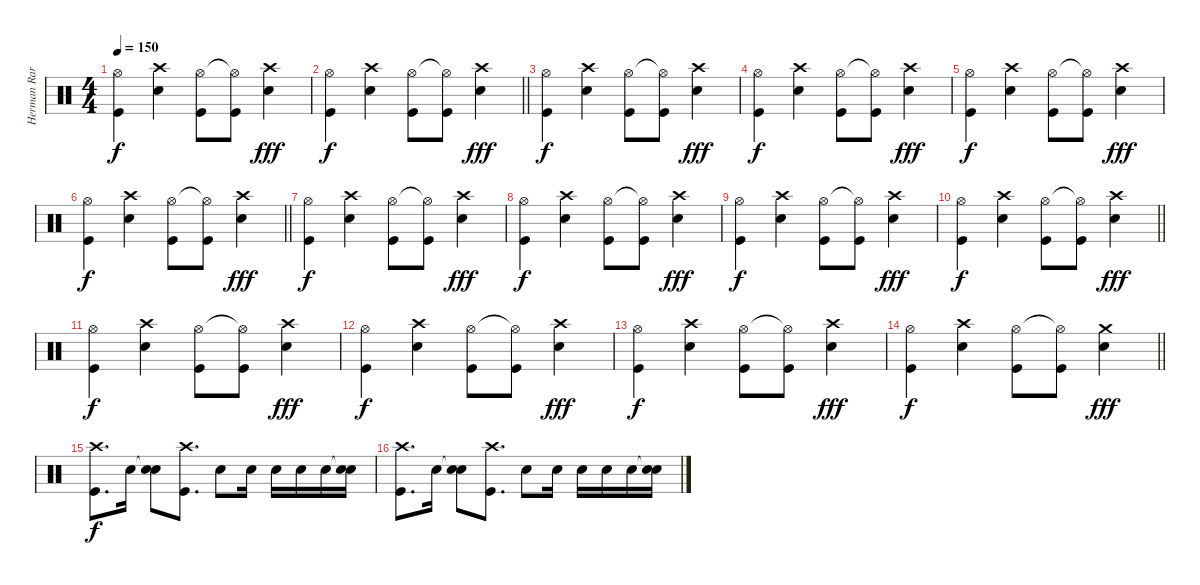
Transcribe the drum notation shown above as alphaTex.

\track ("Herman Rarebell" "Herman Rar") {instrument percussion}
\staff {score}
\articulation defaults
\ts (4 4)
\tempo 150
\clef neutral
\ks c
("Hi-Hat (open)" "Kick (hit)").4{dy f} ("Crash high (hit)" "Snare (hit) 2").4 ("Hi-Hat (open)" "Kick (hit)").8 ("Hi-Hat (open)"{t} "Kick (hit)").8 ("Crash high (hit)" "Snare (hit) 2").4{dy fff} |
\barLineRight lightlight
("Hi-Hat (open)" "Kick (hit)").4{dy f} ("Crash high (hit)" "Snare (hit) 2").4 ("Hi-Hat (open)" "Kick (hit)").8 ("Hi-Hat (open)"{t} "Kick (hit)").8 ("Crash high (hit)" "Snare (hit) 2").4{dy fff} |
("Hi-Hat (open)" "Kick (hit)").4{dy f} ("Crash high (hit)" "Snare (hit) 2").4 ("Hi-Hat (open)" "Kick (hit)").8 ("Hi-Hat (open)"{t} "Kick (hit)").8 ("Crash high (hit)" "Snare (hit) 2").4{dy fff} |
("Hi-Hat (open)" "Kick (hit)").4{dy f} ("Crash high (hit)" "Snare (hit) 2").4 ("Hi-Hat (open)" "Kick (hit)").8 ("Hi-Hat (open)"{t} "Kick (hit)").8 ("Crash high (hit)" "Snare (hit) 2").4{dy fff} |
("Hi-Hat (open)" "Kick (hit)").4{dy f} ("Crash high (hit)" "Snare (hit) 2").4 ("Hi-Hat (open)" "Kick (hit)").8 ("Hi-Hat (open)"{t} "Kick (hit)").8 ("Crash high (hit)" "Snare (hit) 2").4{dy fff} |
\barLineRight lightlight
("Hi-Hat (open)" "Kick (hit)").4{dy f} ("Crash high (hit)" "Snare (hit) 2").4 ("Hi-Hat (open)" "Kick (hit)").8 ("Hi-Hat (open)"{t} "Kick (hit)").8 ("Crash high (hit)" "Snare (hit) 2").4{dy fff} |
("Hi-Hat (open)" "Kick (hit)").4{dy f} ("Crash high (hit)" "Snare (hit) 2").4 ("Hi-Hat (open)" "Kick (hit)").8 ("Hi-Hat (open)"{t} "Kick (hit)").8 ("Crash high (hit)" "Snare (hit) 2").4{dy fff} |
("Hi-Hat (open)" "Kick (hit)").4{dy f} ("Crash high (hit)" "Snare (hit) 2").4 ("Hi-Hat (open)" "Kick (hit)").8 ("Hi-Hat (open)"{t} "Kick (hit)").8 ("Crash high (hit)" "Snare (hit) 2").4{dy fff} |
("Hi-Hat (open)" "Kick (hit)").4{dy f} ("Crash high (hit)" "Snare (hit) 2").4 ("Hi-Hat (open)" "Kick (hit)").8 ("Hi-Hat (open)"{t} "Kick (hit)").8 ("Crash high (hit)" "Snare (hit) 2").4{dy fff} |
\barLineRight lightlight
("Hi-Hat (open)" "Kick (hit)").4{dy f} ("Crash high (hit)" "Snare (hit) 2").4 ("Hi-Hat (open)" "Kick (hit)").8 ("Hi-Hat (open)"{t} "Kick (hit)").8 ("Crash high (hit)" "Snare (hit) 2").4{dy fff} |
("Hi-Hat (open)" "Kick (hit)").4{dy f} ("Crash high (hit)" "Snare (hit) 2").4 ("Hi-Hat (open)" "Kick (hit)").8 ("Hi-Hat (open)"{t} "Kick (hit)").8 ("Crash high (hit)" "Snare (hit) 2").4{dy fff} |
("Hi-Hat (open)" "Kick (hit)").4{dy f} ("Crash high (hit)" "Snare (hit) 2").4 ("Hi-Hat (open)" "Kick (hit)").8 ("Hi-Hat (open)"{t} "Kick (hit)").8 ("Crash high (hit)" "Snare (hit) 2").4{dy fff} |
("Hi-Hat (open)" "Kick (hit)").4{dy f} ("Crash high (hit)" "Snare (hit) 2").4 ("Hi-Hat (open)" "Kick (hit)").8 ("Hi-Hat (open)"{t} "Kick (hit)").8 ("Crash high (hit)" "Snare (hit) 2").4{dy fff} |
\barLineRight lightlight
("Hi-Hat (open)" "Kick (hit)").4{dy f} ("Crash high (hit)" "Snare (hit) 2").4 ("Hi-Hat (open)" "Kick (hit)").8 ("Hi-Hat (open)"{t} "Kick (hit)").8 ("Crash medium (hit)" "Snare (hit) 2").4{dy fff} |
("Crash high (hit)" "Kick (hit)").8{d dy f} "Snare (hit) 2".16 ("Snare (hit)"{t} "Snare (hit) 2").8 ("Crash high (hit)" "Kick (hit)").8{d} "Snare (hit) 2".8 "Snare (hit) 2".16 "Snare (hit) 2".16 "Snare (hit) 2".16 "Snare (hit) 2".16 ("Snare (hit)"{t} "Snare (hit) 2").16 |
("Crash high (hit)" "Kick (hit)").8{d} "Snare (hit) 2".16 ("Snare (hit)"{t} "Snare (hit) 2").8 ("Crash high (hit)" "Kick (hit)").8{d} "Snare (hit) 2".8 "Snare (hit) 2".16 "Snare (hit) 2".16 "Snare (hit) 2".16 "Snare (hit) 2".16 ("Snare (hit)"{t} "Snare (hit) 2").16
